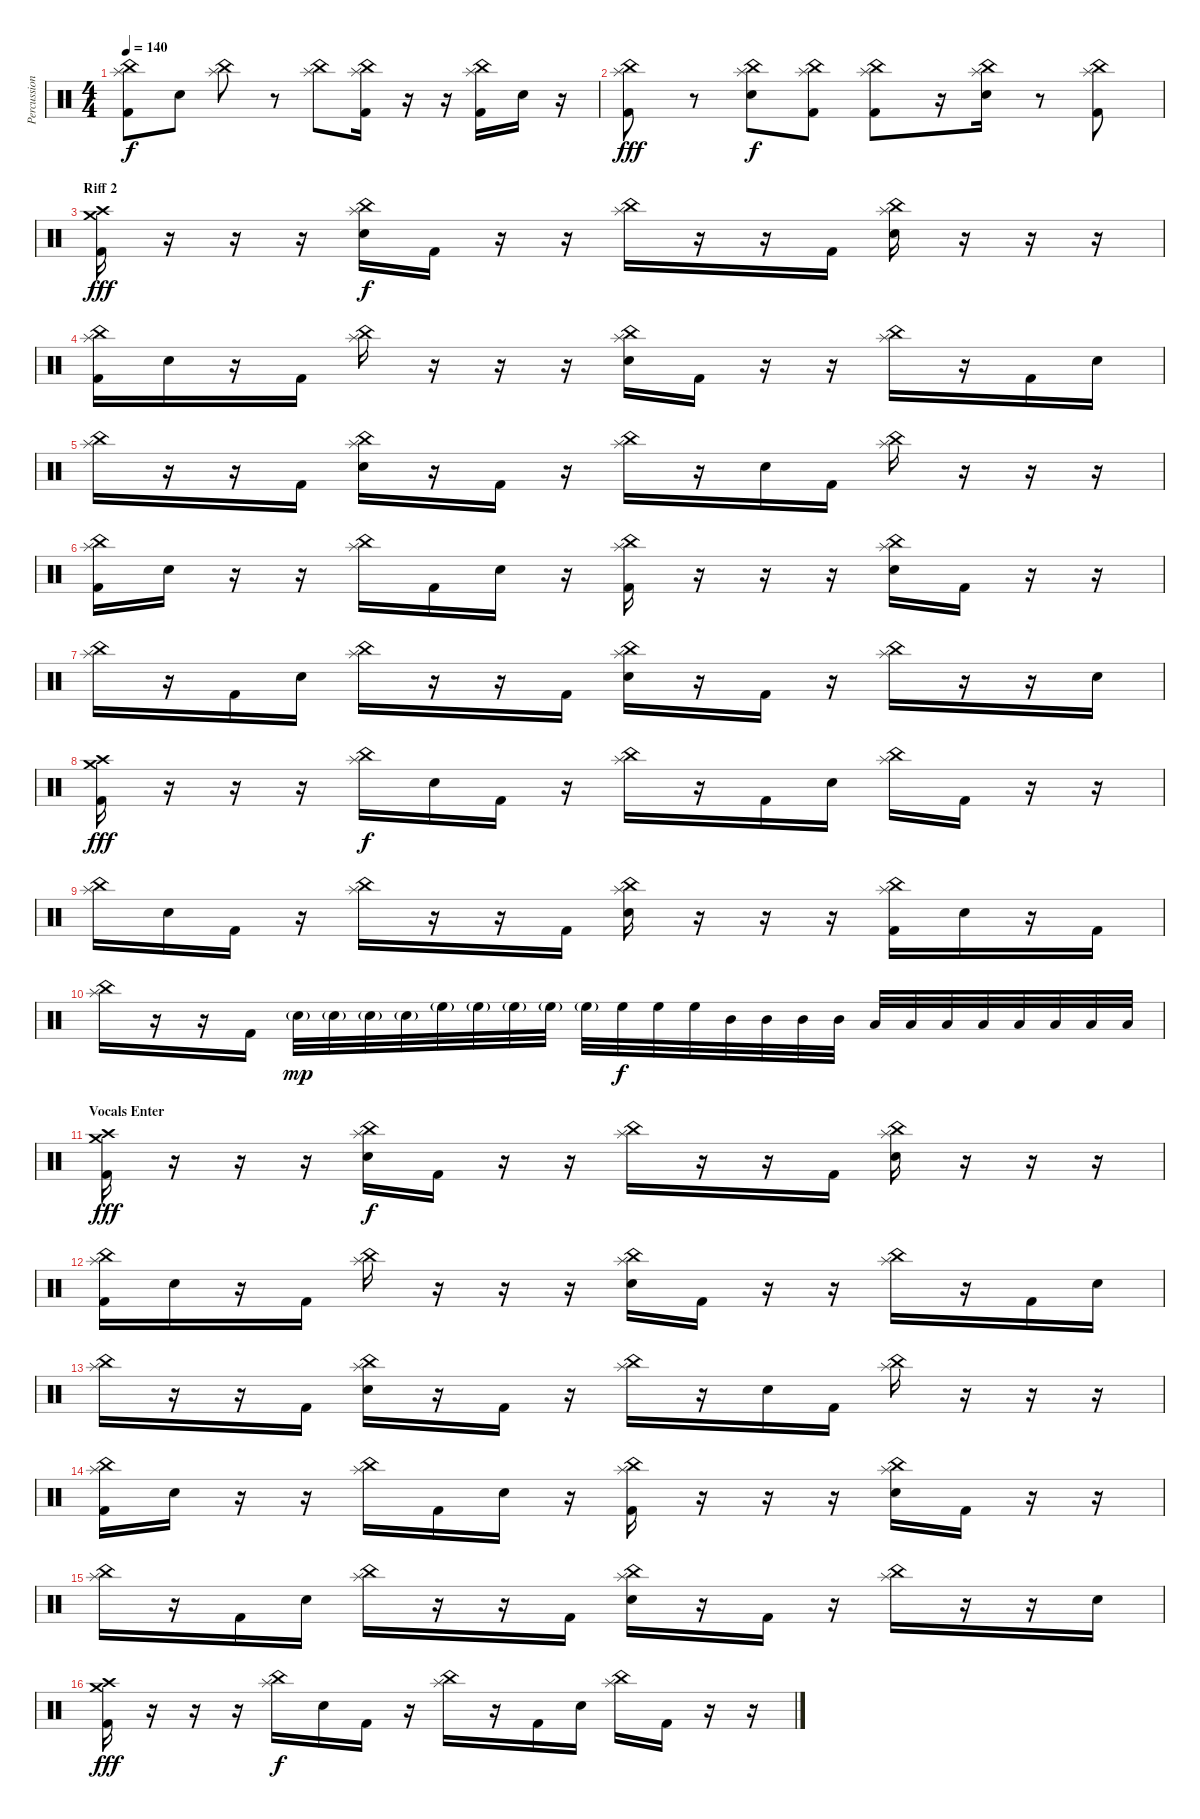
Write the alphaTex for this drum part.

\track ("Percussion" "Percussion") {instrument percussion}
\staff {score}
\articulation defaults
\ts (4 4)
\tempo 140
\clef neutral
\ks c
("Splash (hit)" "China (hit)" "Kick (hit) 2").8{dy f} "Electric Snare (hit)".8 ("Splash (hit)" "China (hit)").8 r.8 ("Splash (hit)" "China (hit)").8 ("Splash (hit)" "China (hit)" "Kick (hit) 2").16 r.16 r.16 ("Splash (hit)" "China (hit)" "Kick (hit) 2").16 "Electric Snare (hit)".16 r.16 |
("Splash (hit)" "China (hit)" "Kick (hit) 2").8{dy fff} r.8 ("Splash (hit)" "China (hit)" "Electric Snare (hit)").8{dy f} ("Splash (hit)" "China (hit)" "Kick (hit) 2").8 ("Splash (hit)" "China (hit)" "Kick (hit) 2").8 r.16 ("Splash (hit)" "China (hit)" "Electric Snare (hit)").16 r.8 ("Splash (hit)" "China (hit)" "Kick (hit) 2").8 |
\section ("" "Riff 2")
("Crash medium (hit)" "Crash high (hit)" "Kick (hit) 2").16{dy fff} r.16 r.16 r.16 ("China (hit)" "Splash (hit)" "Electric Snare (hit)").16{dy f} "Kick (hit) 2".16 r.16 r.16 ("China (hit)" "Splash (hit)").16 r.16 r.16 "Kick (hit) 2".16 ("China (hit)" "Splash (hit)" "Electric Snare (hit)").16 r.16 r.16 r.16 |
("China (hit)" "Splash (hit)" "Kick (hit) 2").16 "Electric Snare (hit)".16 r.16 "Kick (hit) 2".16 ("China (hit)" "Splash (hit)").16 r.16 r.16 r.16 ("China (hit)" "Splash (hit)" "Electric Snare (hit)").16 "Kick (hit) 2".16 r.16 r.16 ("China (hit)" "Splash (hit)").16 r.16 "Kick (hit) 2".16 "Electric Snare (hit)".16 |
("China (hit)" "Splash (hit)").16 r.16 r.16 "Kick (hit) 2".16 ("China (hit)" "Splash (hit)" "Electric Snare (hit)").16 r.16 "Kick (hit) 2".16 r.16 ("China (hit)" "Splash (hit)").16 r.16 "Electric Snare (hit)".16 "Kick (hit) 2".16 ("China (hit)" "Splash (hit)").16 r.16 r.16 r.16 |
("China (hit)" "Splash (hit)" "Kick (hit) 2").16 "Electric Snare (hit)".16 r.16 r.16 ("China (hit)" "Splash (hit)").16 "Kick (hit) 2".16 "Electric Snare (hit)".16 r.16 ("China (hit)" "Splash (hit)" "Kick (hit) 2").16 r.16 r.16 r.16 ("China (hit)" "Splash (hit)" "Electric Snare (hit)").16 "Kick (hit) 2".16 r.16 r.16 |
("China (hit)" "Splash (hit)").16 r.16 "Kick (hit) 2".16 "Electric Snare (hit)".16 ("China (hit)" "Splash (hit)").16 r.16 r.16 "Kick (hit) 2".16 ("China (hit)" "Splash (hit)" "Electric Snare (hit)").16 r.16 "Kick (hit) 2".16 r.16 ("China (hit)" "Splash (hit)").16 r.16 r.16 "Electric Snare (hit)".16 |
("Crash medium (hit)" "Crash high (hit)" "Kick (hit) 2").16{dy fff} r.16 r.16 r.16 ("China (hit)" "Splash (hit)").16{dy f} "Electric Snare (hit)".16 "Kick (hit) 2".16 r.16 ("China (hit)" "Splash (hit)").16 r.16 "Kick (hit) 2".16 "Electric Snare (hit)".16 ("China (hit)" "Splash (hit)").16 "Kick (hit) 2".16 r.16 r.16 |
("China (hit)" "Splash (hit)").16 "Electric Snare (hit)".16 "Kick (hit) 2".16 r.16 ("China (hit)" "Splash (hit)").16 r.16 r.16 "Kick (hit) 2".16 ("China (hit)" "Splash (hit)" "Electric Snare (hit)").16 r.16 r.16 r.16 ("China (hit)" "Splash (hit)" "Kick (hit) 2").16 "Electric Snare (hit)".16 r.16 "Kick (hit) 2".16 |
("China (hit)" "Splash (hit)").16 r.16 r.16 "Kick (hit) 2".16 "Electric Snare (hit)"{g}.32{dy mp} "Electric Snare (hit)"{g}.32 "Electric Snare (hit)"{g}.32 "Electric Snare (hit)"{g}.32 "High Floor Tom (hit)"{g}.32 "High Floor Tom (hit)"{g}.32 "High Floor Tom (hit)"{g}.32 "High Floor Tom (hit)"{g}.32 "High Floor Tom (hit)"{g}.32 "High Floor Tom (hit)".32{dy f} "High Floor Tom (hit)".32 "High Floor Tom (hit)".32 "Mid Tom (hit)".32 "Mid Tom (hit)".32 "Mid Tom (hit)".32 "Mid Tom (hit)".32 "Low Tom (hit)".32 "Low Tom (hit)".32 "Low Tom (hit)".32 "Low Tom (hit)".32 "Low Floor Tom (hit)".32 "Low Floor Tom (hit)".32 "Low Floor Tom (hit)".32 "Low Floor Tom (hit)".32 |
\section ("" "Vocals Enter")
("Crash medium (hit)" "Crash high (hit)" "Kick (hit) 2").16{dy fff} r.16 r.16 r.16 ("China (hit)" "Splash (hit)" "Electric Snare (hit)").16{dy f} "Kick (hit) 2".16 r.16 r.16 ("China (hit)" "Splash (hit)").16 r.16 r.16 "Kick (hit) 2".16 ("China (hit)" "Splash (hit)" "Electric Snare (hit)").16 r.16 r.16 r.16 |
("China (hit)" "Splash (hit)" "Kick (hit) 2").16 "Electric Snare (hit)".16 r.16 "Kick (hit) 2".16 ("China (hit)" "Splash (hit)").16 r.16 r.16 r.16 ("China (hit)" "Splash (hit)" "Electric Snare (hit)").16 "Kick (hit) 2".16 r.16 r.16 ("China (hit)" "Splash (hit)").16 r.16 "Kick (hit) 2".16 "Electric Snare (hit)".16 |
("China (hit)" "Splash (hit)").16 r.16 r.16 "Kick (hit) 2".16 ("China (hit)" "Splash (hit)" "Electric Snare (hit)").16 r.16 "Kick (hit) 2".16 r.16 ("China (hit)" "Splash (hit)").16 r.16 "Electric Snare (hit)".16 "Kick (hit) 2".16 ("China (hit)" "Splash (hit)").16 r.16 r.16 r.16 |
("China (hit)" "Splash (hit)" "Kick (hit) 2").16 "Electric Snare (hit)".16 r.16 r.16 ("China (hit)" "Splash (hit)").16 "Kick (hit) 2".16 "Electric Snare (hit)".16 r.16 ("China (hit)" "Splash (hit)" "Kick (hit) 2").16 r.16 r.16 r.16 ("China (hit)" "Splash (hit)" "Electric Snare (hit)").16 "Kick (hit) 2".16 r.16 r.16 |
("China (hit)" "Splash (hit)").16 r.16 "Kick (hit) 2".16 "Electric Snare (hit)".16 ("China (hit)" "Splash (hit)").16 r.16 r.16 "Kick (hit) 2".16 ("China (hit)" "Splash (hit)" "Electric Snare (hit)").16 r.16 "Kick (hit) 2".16 r.16 ("China (hit)" "Splash (hit)").16 r.16 r.16 "Electric Snare (hit)".16 |
("Crash medium (hit)" "Crash high (hit)" "Kick (hit) 2").16{dy fff} r.16 r.16 r.16 ("China (hit)" "Splash (hit)").16{dy f} "Electric Snare (hit)".16 "Kick (hit) 2".16 r.16 ("China (hit)" "Splash (hit)").16 r.16 "Kick (hit) 2".16 "Electric Snare (hit)".16 ("China (hit)" "Splash (hit)").16 "Kick (hit) 2".16 r.16 r.16
